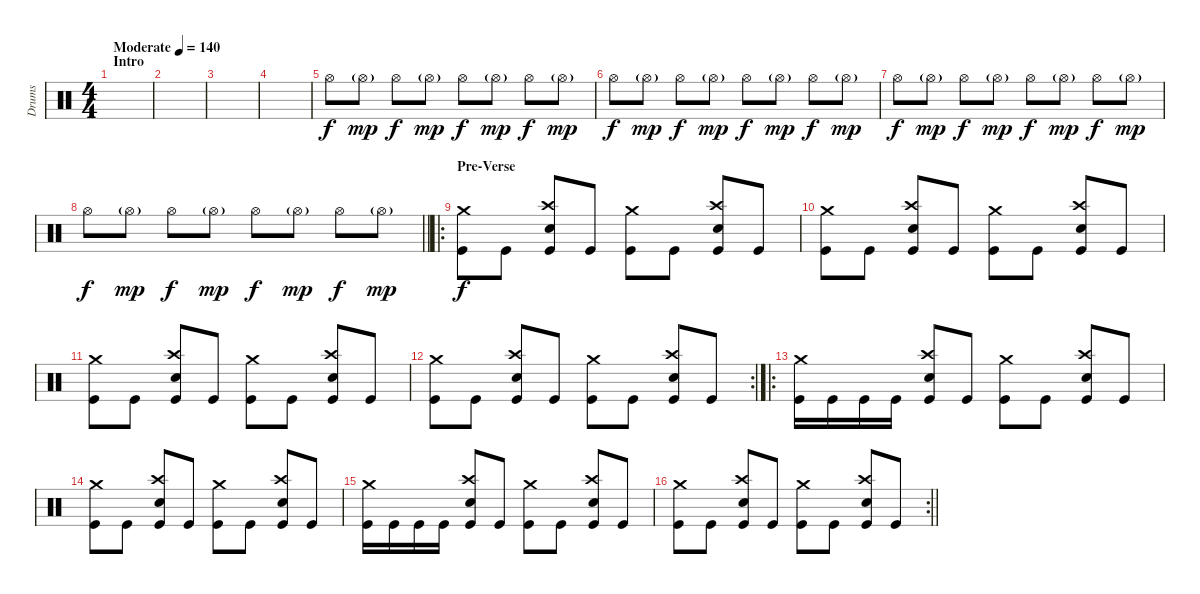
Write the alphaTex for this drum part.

\track ("Drums" "Drums") {instrument percussion}
\staff {score}
\articulation defaults
\ts (4 4)
\section ("" "Intro")
\tempo (140 "Moderate")
\clef neutral
\ks c
|
|
|
|
"Hi-Hat (open)".8 "Hi-Hat (open)"{g}.8{dy mp} "Hi-Hat (open)".8{dy f} "Hi-Hat (open)"{g}.8{dy mp} "Hi-Hat (open)".8{dy f} "Hi-Hat (open)"{g}.8{dy mp} "Hi-Hat (open)".8{dy f} "Hi-Hat (open)"{g}.8{dy mp} |
"Hi-Hat (open)".8{dy f} "Hi-Hat (open)"{g}.8{dy mp} "Hi-Hat (open)".8{dy f} "Hi-Hat (open)"{g}.8{dy mp} "Hi-Hat (open)".8{dy f} "Hi-Hat (open)"{g}.8{dy mp} "Hi-Hat (open)".8{dy f} "Hi-Hat (open)"{g}.8{dy mp} |
"Hi-Hat (open)".8{dy f} "Hi-Hat (open)"{g}.8{dy mp} "Hi-Hat (open)".8{dy f} "Hi-Hat (open)"{g}.8{dy mp} "Hi-Hat (open)".8{dy f} "Hi-Hat (open)"{g}.8{dy mp} "Hi-Hat (open)".8{dy f} "Hi-Hat (open)"{g}.8{dy mp} |
\barLineRight lightlight "Hi-Hat (open)".8{dy f} "Hi-Hat (open)"{g}.8{dy mp} "Hi-Hat (open)".8{dy f} "Hi-Hat (open)"{g}.8{dy mp} "Hi-Hat (open)".8{dy f} "Hi-Hat (open)"{g}.8{dy mp} "Hi-Hat (open)".8{dy f} "Hi-Hat (open)"{g}.8{dy mp}
|
\ro
\section ("" "Pre-Verse")
("Crash medium (hit)" "Kick (hit)").8{dy f} "Kick (hit)".8 ("Crash high (hit)" "Snare (hit) 2" "Kick (hit)").8 "Kick (hit)".8 ("Crash medium (hit)" "Kick (hit)").8 "Kick (hit)".8 ("Crash high (hit)" "Snare (hit) 2" "Kick (hit)").8 "Kick (hit)".8 |
("Crash medium (hit)" "Kick (hit)").8 "Kick (hit)".8 ("Crash high (hit)" "Snare (hit) 2" "Kick (hit)").8 "Kick (hit)".8 ("Crash medium (hit)" "Kick (hit)").8 "Kick (hit)".8 ("Crash high (hit)" "Snare (hit) 2" "Kick (hit)").8 "Kick (hit)".8 |
("Crash medium (hit)" "Kick (hit)").8 "Kick (hit)".8 ("Crash high (hit)" "Snare (hit) 2" "Kick (hit)").8 "Kick (hit)".8 ("Crash medium (hit)" "Kick (hit)").8 "Kick (hit)".8 ("Crash high (hit)" "Snare (hit) 2" "Kick (hit)").8 "Kick (hit)".8 |
\rc 2
("Crash medium (hit)" "Kick (hit)").8 "Kick (hit)".8 ("Crash high (hit)" "Snare (hit) 2" "Kick (hit)").8 "Kick (hit)".8 ("Crash medium (hit)" "Kick (hit)").8 "Kick (hit)".8 ("Crash high (hit)" "Snare (hit) 2" "Kick (hit)").8 "Kick (hit)".8 |
\ro
("Crash medium (hit)" "Kick (hit)").16 "Kick (hit)".16 "Kick (hit)".16 "Kick (hit)".16 ("Crash high (hit)" "Snare (hit) 2" "Kick (hit)").8 "Kick (hit)".8 ("Crash medium (hit)" "Kick (hit)").8 "Kick (hit)".8 ("Crash high (hit)" "Snare (hit) 2" "Kick (hit)").8 "Kick (hit)".8 |
("Crash medium (hit)" "Kick (hit)").8 "Kick (hit)".8 ("Crash high (hit)" "Snare (hit) 2" "Kick (hit)").8 "Kick (hit)".8 ("Crash medium (hit)" "Kick (hit)").8 "Kick (hit)".8 ("Crash high (hit)" "Snare (hit) 2" "Kick (hit)").8 "Kick (hit)".8 |
("Crash medium (hit)" "Kick (hit)").16 "Kick (hit)".16 "Kick (hit)".16 "Kick (hit)".16 ("Crash high (hit)" "Snare (hit) 2" "Kick (hit)").8 "Kick (hit)".8 ("Crash medium (hit)" "Kick (hit)").8 "Kick (hit)".8 ("Crash high (hit)" "Snare (hit) 2" "Kick (hit)").8 "Kick (hit)".8 |
\rc 2
\barLineRight lightlight
("Crash medium (hit)" "Kick (hit)").8 "Kick (hit)".8 ("Crash high (hit)" "Snare (hit) 2" "Kick (hit)").8 "Kick (hit)".8 ("Crash medium (hit)" "Kick (hit)").8 "Kick (hit)".8 ("Crash high (hit)" "Snare (hit) 2" "Kick (hit)").8 "Kick (hit)".8
